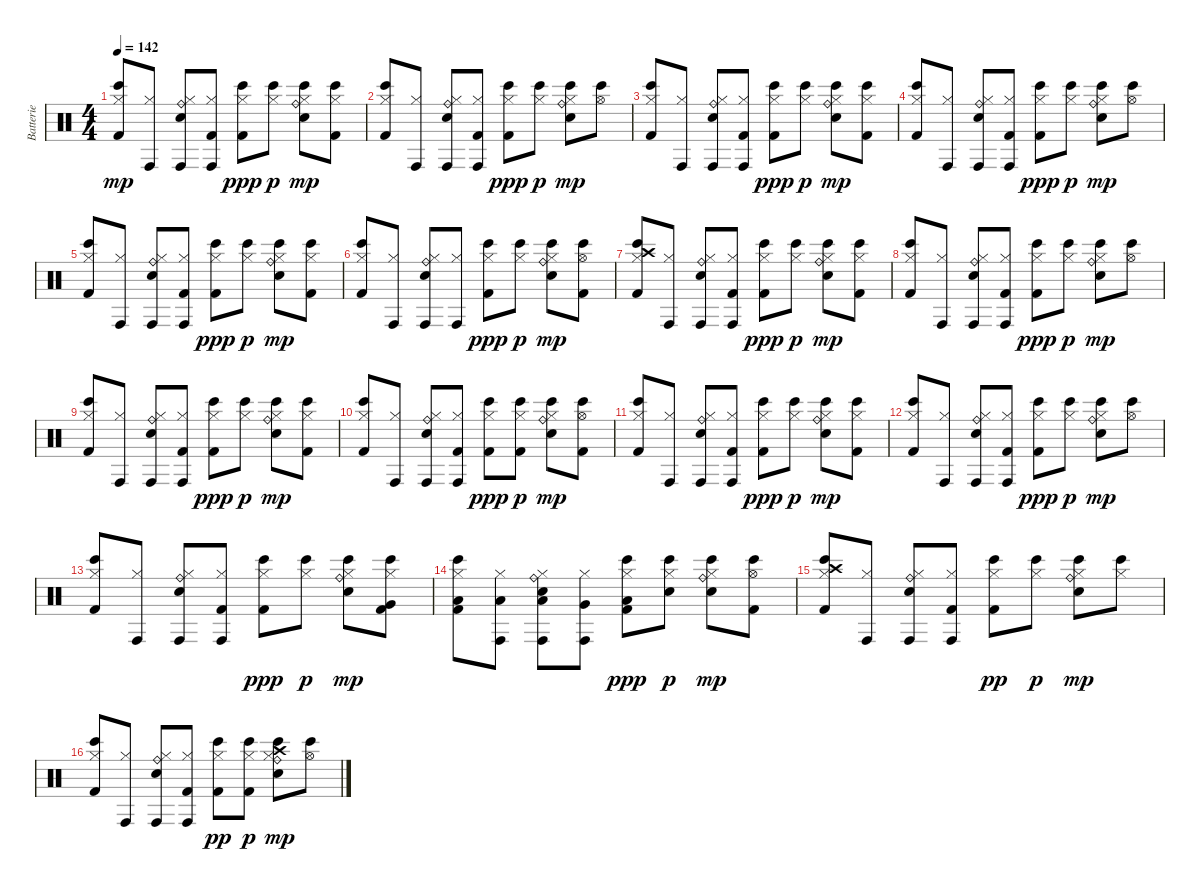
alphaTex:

\track ("Batterie" "Batterie") {instrument percussion}
\staff {score}
\articulation defaults
\ts (4 4)
\tempo 142
\clef neutral
\ks c
("Kick (hit) 2" "Hi-Hat (closed)" "Bongo High (hit)").8{dy mp} ("Hi-Hat (closed)" "Conga high (hit)").8 ("Electric Snare (hit)" "Hi-Hat (closed)" "Ride (bell)" "Conga high (hit)").8 ("Kick (hit) 2" "Hi-Hat (closed)" "Conga high (hit)").8 ("Kick (hit) 2" "Hi-Hat (closed)" "Bongo High (hit)").8{dy ppp} ("Hi-Hat (closed)" "Bongo High (hit)").8{dy p} ("Electric Snare (hit)" "Hi-Hat (closed)" "Ride (bell)" "Bongo High (hit)").8{dy mp} ("Kick (hit) 2" "Hi-Hat (closed)" "Bongo High (hit)").8 |
("Kick (hit) 2" "Hi-Hat (closed)" "Bongo High (hit)").8 ("Hi-Hat (closed)" "Conga high (hit)").8 ("Electric Snare (hit)" "Hi-Hat (closed)" "Ride (bell)" "Conga high (hit)").8 ("Kick (hit) 2" "Hi-Hat (closed)" "Conga high (hit)").8 ("Kick (hit) 2" "Hi-Hat (closed)" "Bongo High (hit)").8{dy ppp} ("Hi-Hat (closed)" "Bongo High (hit)").8{dy p} ("Electric Snare (hit)" "Hi-Hat (closed)" "Ride (bell)" "Bongo High (hit)").8{dy mp} ("Hi-Hat (open)" "Bongo High (hit)").8 |
("Kick (hit) 2" "Hi-Hat (closed)" "Bongo High (hit)").8 ("Hi-Hat (closed)" "Conga high (hit)").8 ("Electric Snare (hit)" "Hi-Hat (closed)" "Ride (bell)" "Conga high (hit)").8 ("Kick (hit) 2" "Hi-Hat (closed)" "Conga high (hit)").8 ("Kick (hit) 2" "Hi-Hat (closed)" "Bongo High (hit)").8{dy ppp} ("Hi-Hat (closed)" "Bongo High (hit)").8{dy p} ("Electric Snare (hit)" "Hi-Hat (closed)" "Ride (bell)" "Bongo High (hit)").8{dy mp} ("Kick (hit) 2" "Hi-Hat (closed)" "Bongo High (hit)").8 |
("Kick (hit) 2" "Hi-Hat (closed)" "Bongo High (hit)").8 ("Hi-Hat (closed)" "Conga high (hit)").8 ("Electric Snare (hit)" "Hi-Hat (closed)" "Ride (bell)" "Conga high (hit)").8 ("Kick (hit) 2" "Hi-Hat (closed)" "Conga high (hit)").8 ("Kick (hit) 2" "Hi-Hat (closed)" "Bongo High (hit)").8{dy ppp} ("Hi-Hat (closed)" "Bongo High (hit)").8{dy p} ("Electric Snare (hit)" "Hi-Hat (closed)" "Ride (bell)" "Bongo High (hit)").8{dy mp} ("Hi-Hat (open)" "Bongo High (hit)").8 |
("Kick (hit) 2" "Hi-Hat (closed)" "Bongo High (hit)").8 ("Hi-Hat (closed)" "Conga high (hit)").8 ("Electric Snare (hit)" "Hi-Hat (closed)" "Ride (bell)" "Conga high (hit)").8 ("Kick (hit) 2" "Hi-Hat (closed)" "Conga high (hit)").8 ("Kick (hit) 2" "Hi-Hat (closed)" "Bongo High (hit)").8{dy ppp} ("Hi-Hat (closed)" "Bongo High (hit)").8{dy p} ("Electric Snare (hit)" "Hi-Hat (closed)" "Ride (bell)" "Bongo High (hit)").8{dy mp} ("Kick (hit) 2" "Hi-Hat (closed)" "Bongo High (hit)").8 |
("Kick (hit) 2" "Hi-Hat (closed)" "Bongo High (hit)").8 ("Hi-Hat (closed)" "Conga high (hit)").8 ("Electric Snare (hit)" "Hi-Hat (closed)" "Ride (bell)" "Conga high (hit)").8 ("Hi-Hat (closed)" "Conga high (hit)").8 ("Kick (hit) 2" "Hi-Hat (closed)" "Bongo High (hit)").8{dy ppp} ("Hi-Hat (closed)" "Bongo High (hit)").8{dy p} ("Electric Snare (hit)" "Hi-Hat (closed)" "Ride (bell)" "Bongo High (hit)").8{dy mp} ("Kick (hit) 2" "Hi-Hat (open)" "Bongo High (hit)").8 |
("Kick (hit) 2" "Hi-Hat (closed)" "Crash high (hit)" "Bongo High (hit)").8 ("Hi-Hat (closed)" "Conga high (hit)").8 ("Electric Snare (hit)" "Hi-Hat (closed)" "Ride (bell)" "Conga high (hit)").8 ("Kick (hit) 2" "Hi-Hat (closed)" "Conga high (hit)").8 ("Kick (hit) 2" "Hi-Hat (closed)" "Bongo High (hit)").8{dy ppp} ("Hi-Hat (closed)" "Bongo High (hit)").8{dy p} ("Electric Snare (hit)" "Hi-Hat (closed)" "Ride (bell)" "Bongo High (hit)").8{dy mp} ("Kick (hit) 2" "Hi-Hat (closed)" "Bongo High (hit)").8 |
("Kick (hit) 2" "Hi-Hat (closed)" "Bongo High (hit)").8 ("Hi-Hat (closed)" "Conga high (hit)").8 ("Electric Snare (hit)" "Hi-Hat (closed)" "Ride (bell)" "Conga high (hit)").8 ("Kick (hit) 2" "Hi-Hat (closed)" "Conga high (hit)").8 ("Kick (hit) 2" "Hi-Hat (closed)" "Bongo High (hit)").8{dy ppp} ("Hi-Hat (closed)" "Bongo High (hit)").8{dy p} ("Electric Snare (hit)" "Hi-Hat (closed)" "Ride (bell)" "Bongo High (hit)").8{dy mp} ("Hi-Hat (open)" "Bongo High (hit)").8 |
("Kick (hit) 2" "Hi-Hat (closed)" "Bongo High (hit)").8 ("Hi-Hat (closed)" "Conga high (hit)").8 ("Electric Snare (hit)" "Hi-Hat (closed)" "Ride (bell)" "Conga high (hit)").8 ("Kick (hit) 2" "Hi-Hat (closed)" "Conga high (hit)").8 ("Kick (hit) 2" "Hi-Hat (closed)" "Bongo High (hit)").8{dy ppp} ("Hi-Hat (closed)" "Bongo High (hit)").8{dy p} ("Electric Snare (hit)" "Hi-Hat (closed)" "Ride (bell)" "Bongo High (hit)").8{dy mp} ("Kick (hit) 2" "Hi-Hat (closed)" "Bongo High (hit)").8 |
("Kick (hit) 2" "Hi-Hat (closed)" "Bongo High (hit)").8 ("Hi-Hat (closed)" "Conga high (hit)").8 ("Electric Snare (hit)" "Hi-Hat (closed)" "Ride (bell)" "Conga high (hit)").8 ("Kick (hit) 2" "Hi-Hat (closed)" "Conga high (hit)").8 ("Kick (hit) 2" "Hi-Hat (closed)" "Bongo High (hit)").8{dy ppp} ("Kick (hit) 2" "Hi-Hat (closed)" "Bongo High (hit)").8{dy p} ("Electric Snare (hit)" "Hi-Hat (closed)" "Ride (bell)" "Bongo High (hit)").8{dy mp} ("Kick (hit) 2" "Hi-Hat (open)" "Bongo High (hit)").8 |
("Kick (hit) 2" "Hi-Hat (closed)" "Bongo High (hit)").8 ("Hi-Hat (closed)" "Conga high (hit)").8 ("Electric Snare (hit)" "Hi-Hat (closed)" "Ride (bell)" "Conga high (hit)").8 ("Kick (hit) 2" "Hi-Hat (closed)" "Conga high (hit)").8 ("Kick (hit) 2" "Hi-Hat (closed)" "Bongo High (hit)").8{dy ppp} ("Hi-Hat (closed)" "Bongo High (hit)").8{dy p} ("Electric Snare (hit)" "Hi-Hat (closed)" "Ride (bell)" "Bongo High (hit)").8{dy mp} ("Kick (hit) 2" "Hi-Hat (closed)" "Bongo High (hit)").8 |
("Kick (hit) 2" "Hi-Hat (closed)" "Bongo High (hit)").8 ("Hi-Hat (closed)" "Conga high (hit)").8 ("Electric Snare (hit)" "Hi-Hat (closed)" "Ride (bell)" "Conga high (hit)").8 ("Kick (hit) 2" "Hi-Hat (closed)" "Conga high (hit)").8 ("Kick (hit) 2" "Hi-Hat (closed)" "Bongo High (hit)").8{dy ppp} ("Hi-Hat (closed)" "Bongo High (hit)").8{dy p} ("Electric Snare (hit)" "Hi-Hat (closed)" "Ride (bell)" "Bongo High (hit)").8{dy mp} ("Hi-Hat (open)" "Bongo High (hit)").8 |
("Kick (hit) 2" "Hi-Hat (closed)" "Bongo High (hit)").8 ("Hi-Hat (closed)" "Conga high (hit)").8 ("Electric Snare (hit)" "Hi-Hat (closed)" "Ride (bell)" "Conga high (hit)").8 ("Kick (hit) 2" "Hi-Hat (closed)" "Conga high (hit)").8 ("Kick (hit) 2" "Hi-Hat (closed)" "Bongo High (hit)").8{dy ppp} ("Hi-Hat (closed)" "Bongo High (hit)").8{dy p} ("Electric Snare (hit)" "Hi-Hat (closed)" "Ride (bell)" "Bongo High (hit)").8{dy mp} ("Kick (hit) 2" "Hi-Hat (closed)" "Very Low Tom (hit)" "Bongo High (hit)").8 |
("Kick (hit) 2" "Hi-Hat (closed)" "Low Floor Tom (hit)" "Bongo High (hit)").8 ("Hi-Hat (closed)" "Low Floor Tom (hit)" "Conga high (hit)").8 ("Electric Snare (hit)" "Hi-Hat (closed)" "Ride (bell)" "Low Tom (hit)" "Conga high (hit)").8 ("Hi-Hat (closed)" "Very Low Tom (hit)" "Conga high (hit)").8 ("Kick (hit) 2" "Hi-Hat (closed)" "Low Tom (hit)" "Bongo High (hit)").8{dy ppp} ("Electric Snare (hit)" "Hi-Hat (closed)" "Bongo High (hit)").8{dy p} ("Electric Snare (hit)" "Hi-Hat (closed)" "Ride (bell)" "Bongo High (hit)").8{dy mp} ("Kick (hit) 2" "Hi-Hat (open)" "Bongo High (hit)").8 |
("Kick (hit) 2" "Hi-Hat (closed)" "Crash high (hit)" "Bongo High (hit)").8 ("Hi-Hat (closed)" "Conga high (hit)").8 ("Electric Snare (hit)" "Hi-Hat (closed)" "Ride (bell)" "Conga high (hit)").8 ("Kick (hit) 2" "Hi-Hat (closed)" "Conga high (hit)").8 ("Kick (hit) 2" "Hi-Hat (closed)" "Bongo High (hit)").8{dy pp} ("Hi-Hat (closed)" "Bongo High (hit)").8{dy p} ("Electric Snare (hit)" "Hi-Hat (closed)" "Ride (bell)" "Bongo High (hit)").8{dy mp} ("Hi-Hat (closed)" "Bongo High (hit)").8 |
("Kick (hit) 2" "Hi-Hat (closed)" "Bongo High (hit)").8 ("Hi-Hat (closed)" "Conga high (hit)").8 ("Electric Snare (hit)" "Hi-Hat (closed)" "Ride (bell)" "Conga high (hit)").8 ("Kick (hit) 2" "Hi-Hat (closed)" "Conga high (hit)").8 ("Kick (hit) 2" "Hi-Hat (closed)" "Bongo High (hit)").8{dy pp} ("Kick (hit) 2" "Hi-Hat (closed)" "Bongo High (hit)").8{dy p} ("Electric Snare (hit)" "Hi-Hat (closed)" "Ride (bell)" "Crash high (hit)" "Bongo High (hit)").8{dy mp} ("Hi-Hat (open)" "Bongo High (hit)").8
